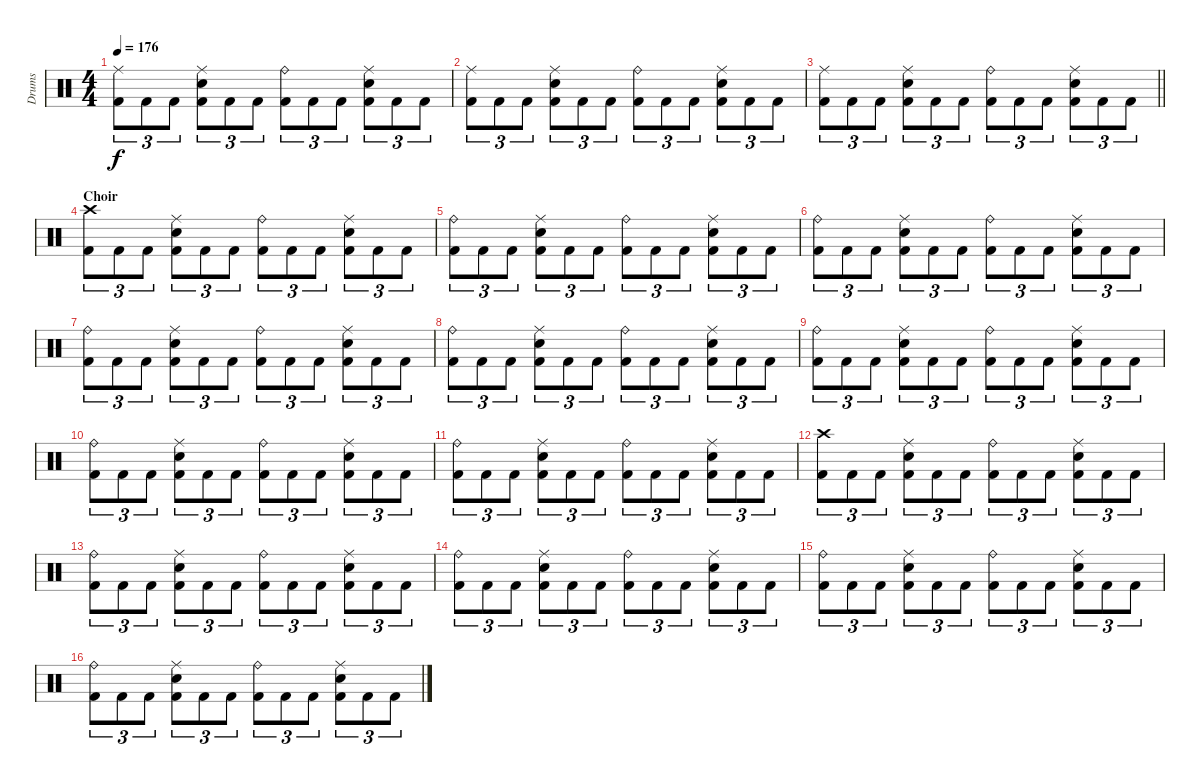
\track ("Drums" "Drums") {instrument percussion}
\staff {score}
\articulation defaults
\ts (4 4)
\tempo 176
\clef neutral
\ks c
("Ride (middle)" "Kick (hit) 2").8{tu (3 2) dy f} "Kick (hit) 2".8{tu (3 2)} "Kick (hit) 2".8{tu (3 2)} ("Ride (middle)" "Snare (hit) 2" "Kick (hit) 2").8{tu (3 2)} "Kick (hit) 2".8{tu (3 2)} "Kick (hit) 2".8{tu (3 2)} ("Ride (bell)" "Kick (hit) 2").8{tu (3 2)} "Kick (hit) 2".8{tu (3 2)} "Kick (hit) 2".8{tu (3 2)} ("Ride (middle)" "Snare (hit) 2" "Kick (hit) 2").8{tu (3 2)} "Kick (hit) 2".8{tu (3 2)} "Kick (hit) 2".8{tu (3 2)} |
("Ride (middle)" "Kick (hit) 2").8{tu (3 2)} "Kick (hit) 2".8{tu (3 2)} "Kick (hit) 2".8{tu (3 2)} ("Ride (middle)" "Snare (hit) 2" "Kick (hit) 2").8{tu (3 2)} "Kick (hit) 2".8{tu (3 2)} "Kick (hit) 2".8{tu (3 2)} ("Ride (bell)" "Kick (hit) 2").8{tu (3 2)} "Kick (hit) 2".8{tu (3 2)} "Kick (hit) 2".8{tu (3 2)} ("Ride (middle)" "Snare (hit) 2" "Kick (hit) 2").8{tu (3 2)} "Kick (hit) 2".8{tu (3 2)} "Kick (hit) 2".8{tu (3 2)} |
\barLineRight lightlight
("Ride (middle)" "Kick (hit) 2").8{tu (3 2)} "Kick (hit) 2".8{tu (3 2)} "Kick (hit) 2".8{tu (3 2)} ("Ride (middle)" "Snare (hit) 2" "Kick (hit) 2").8{tu (3 2)} "Kick (hit) 2".8{tu (3 2)} "Kick (hit) 2".8{tu (3 2)} ("Ride (bell)" "Kick (hit) 2").8{tu (3 2)} "Kick (hit) 2".8{tu (3 2)} "Kick (hit) 2".8{tu (3 2)} ("Ride (middle)" "Snare (hit) 2" "Kick (hit) 2").8{tu (3 2)} "Kick (hit) 2".8{tu (3 2)} "Kick (hit) 2".8{tu (3 2)} |
\section ("" "Choir")
("Crash high (hit)" "Kick (hit) 2").8{tu (3 2)} "Kick (hit) 2".8{tu (3 2)} "Kick (hit) 2".8{tu (3 2)} ("Ride (middle)" "Snare (hit) 2" "Kick (hit) 2").8{tu (3 2)} "Kick (hit) 2".8{tu (3 2)} "Kick (hit) 2".8{tu (3 2)} ("Ride (bell)" "Kick (hit) 2").8{tu (3 2)} "Kick (hit) 2".8{tu (3 2)} "Kick (hit) 2".8{tu (3 2)} ("Ride (middle)" "Snare (hit) 2" "Kick (hit) 2").8{tu (3 2)} "Kick (hit) 2".8{tu (3 2)} "Kick (hit) 2".8{tu (3 2)} |
("Ride (bell)" "Kick (hit) 2").8{tu (3 2)} "Kick (hit) 2".8{tu (3 2)} "Kick (hit) 2".8{tu (3 2)} ("Ride (middle)" "Snare (hit) 2" "Kick (hit) 2").8{tu (3 2)} "Kick (hit) 2".8{tu (3 2)} "Kick (hit) 2".8{tu (3 2)} ("Ride (bell)" "Kick (hit) 2").8{tu (3 2)} "Kick (hit) 2".8{tu (3 2)} "Kick (hit) 2".8{tu (3 2)} ("Ride (middle)" "Snare (hit) 2" "Kick (hit) 2").8{tu (3 2)} "Kick (hit) 2".8{tu (3 2)} "Kick (hit) 2".8{tu (3 2)} |
("Ride (bell)" "Kick (hit) 2").8{tu (3 2)} "Kick (hit) 2".8{tu (3 2)} "Kick (hit) 2".8{tu (3 2)} ("Ride (middle)" "Snare (hit) 2" "Kick (hit) 2").8{tu (3 2)} "Kick (hit) 2".8{tu (3 2)} "Kick (hit) 2".8{tu (3 2)} ("Ride (bell)" "Kick (hit) 2").8{tu (3 2)} "Kick (hit) 2".8{tu (3 2)} "Kick (hit) 2".8{tu (3 2)} ("Ride (middle)" "Snare (hit) 2" "Kick (hit) 2").8{tu (3 2)} "Kick (hit) 2".8{tu (3 2)} "Kick (hit) 2".8{tu (3 2)} |
("Ride (bell)" "Kick (hit) 2").8{tu (3 2)} "Kick (hit) 2".8{tu (3 2)} "Kick (hit) 2".8{tu (3 2)} ("Ride (middle)" "Snare (hit) 2" "Kick (hit) 2").8{tu (3 2)} "Kick (hit) 2".8{tu (3 2)} "Kick (hit) 2".8{tu (3 2)} ("Ride (bell)" "Kick (hit) 2").8{tu (3 2)} "Kick (hit) 2".8{tu (3 2)} "Kick (hit) 2".8{tu (3 2)} ("Ride (middle)" "Snare (hit) 2" "Kick (hit) 2").8{tu (3 2)} "Kick (hit) 2".8{tu (3 2)} "Kick (hit) 2".8{tu (3 2)} |
("Ride (bell)" "Kick (hit) 2").8{tu (3 2)} "Kick (hit) 2".8{tu (3 2)} "Kick (hit) 2".8{tu (3 2)} ("Ride (middle)" "Snare (hit) 2" "Kick (hit) 2").8{tu (3 2)} "Kick (hit) 2".8{tu (3 2)} "Kick (hit) 2".8{tu (3 2)} ("Ride (bell)" "Kick (hit) 2").8{tu (3 2)} "Kick (hit) 2".8{tu (3 2)} "Kick (hit) 2".8{tu (3 2)} ("Ride (middle)" "Snare (hit) 2" "Kick (hit) 2").8{tu (3 2)} "Kick (hit) 2".8{tu (3 2)} "Kick (hit) 2".8{tu (3 2)} |
("Ride (bell)" "Kick (hit) 2").8{tu (3 2)} "Kick (hit) 2".8{tu (3 2)} "Kick (hit) 2".8{tu (3 2)} ("Ride (middle)" "Snare (hit) 2" "Kick (hit) 2").8{tu (3 2)} "Kick (hit) 2".8{tu (3 2)} "Kick (hit) 2".8{tu (3 2)} ("Ride (bell)" "Kick (hit) 2").8{tu (3 2)} "Kick (hit) 2".8{tu (3 2)} "Kick (hit) 2".8{tu (3 2)} ("Ride (middle)" "Snare (hit) 2" "Kick (hit) 2").8{tu (3 2)} "Kick (hit) 2".8{tu (3 2)} "Kick (hit) 2".8{tu (3 2)} |
("Ride (bell)" "Kick (hit) 2").8{tu (3 2)} "Kick (hit) 2".8{tu (3 2)} "Kick (hit) 2".8{tu (3 2)} ("Ride (middle)" "Snare (hit) 2" "Kick (hit) 2").8{tu (3 2)} "Kick (hit) 2".8{tu (3 2)} "Kick (hit) 2".8{tu (3 2)} ("Ride (bell)" "Kick (hit) 2").8{tu (3 2)} "Kick (hit) 2".8{tu (3 2)} "Kick (hit) 2".8{tu (3 2)} ("Ride (middle)" "Snare (hit) 2" "Kick (hit) 2").8{tu (3 2)} "Kick (hit) 2".8{tu (3 2)} "Kick (hit) 2".8{tu (3 2)} |
("Ride (bell)" "Kick (hit) 2").8{tu (3 2)} "Kick (hit) 2".8{tu (3 2)} "Kick (hit) 2".8{tu (3 2)} ("Ride (middle)" "Snare (hit) 2" "Kick (hit) 2").8{tu (3 2)} "Kick (hit) 2".8{tu (3 2)} "Kick (hit) 2".8{tu (3 2)} ("Ride (bell)" "Kick (hit) 2").8{tu (3 2)} "Kick (hit) 2".8{tu (3 2)} "Kick (hit) 2".8{tu (3 2)} ("Ride (middle)" "Snare (hit) 2" "Kick (hit) 2").8{tu (3 2)} "Kick (hit) 2".8{tu (3 2)} "Kick (hit) 2".8{tu (3 2)} |
("Crash high (hit)" "Kick (hit) 2").8{tu (3 2)} "Kick (hit) 2".8{tu (3 2)} "Kick (hit) 2".8{tu (3 2)} ("Ride (middle)" "Snare (hit) 2" "Kick (hit) 2").8{tu (3 2)} "Kick (hit) 2".8{tu (3 2)} "Kick (hit) 2".8{tu (3 2)} ("Ride (bell)" "Kick (hit) 2").8{tu (3 2)} "Kick (hit) 2".8{tu (3 2)} "Kick (hit) 2".8{tu (3 2)} ("Ride (middle)" "Snare (hit) 2" "Kick (hit) 2").8{tu (3 2)} "Kick (hit) 2".8{tu (3 2)} "Kick (hit) 2".8{tu (3 2)} |
("Ride (bell)" "Kick (hit) 2").8{tu (3 2)} "Kick (hit) 2".8{tu (3 2)} "Kick (hit) 2".8{tu (3 2)} ("Ride (middle)" "Snare (hit) 2" "Kick (hit) 2").8{tu (3 2)} "Kick (hit) 2".8{tu (3 2)} "Kick (hit) 2".8{tu (3 2)} ("Ride (bell)" "Kick (hit) 2").8{tu (3 2)} "Kick (hit) 2".8{tu (3 2)} "Kick (hit) 2".8{tu (3 2)} ("Ride (middle)" "Snare (hit) 2" "Kick (hit) 2").8{tu (3 2)} "Kick (hit) 2".8{tu (3 2)} "Kick (hit) 2".8{tu (3 2)} |
("Ride (bell)" "Kick (hit) 2").8{tu (3 2)} "Kick (hit) 2".8{tu (3 2)} "Kick (hit) 2".8{tu (3 2)} ("Ride (middle)" "Snare (hit) 2" "Kick (hit) 2").8{tu (3 2)} "Kick (hit) 2".8{tu (3 2)} "Kick (hit) 2".8{tu (3 2)} ("Ride (bell)" "Kick (hit) 2").8{tu (3 2)} "Kick (hit) 2".8{tu (3 2)} "Kick (hit) 2".8{tu (3 2)} ("Ride (middle)" "Snare (hit) 2" "Kick (hit) 2").8{tu (3 2)} "Kick (hit) 2".8{tu (3 2)} "Kick (hit) 2".8{tu (3 2)} |
("Ride (bell)" "Kick (hit) 2").8{tu (3 2)} "Kick (hit) 2".8{tu (3 2)} "Kick (hit) 2".8{tu (3 2)} ("Ride (middle)" "Snare (hit) 2" "Kick (hit) 2").8{tu (3 2)} "Kick (hit) 2".8{tu (3 2)} "Kick (hit) 2".8{tu (3 2)} ("Ride (bell)" "Kick (hit) 2").8{tu (3 2)} "Kick (hit) 2".8{tu (3 2)} "Kick (hit) 2".8{tu (3 2)} ("Ride (middle)" "Snare (hit) 2" "Kick (hit) 2").8{tu (3 2)} "Kick (hit) 2".8{tu (3 2)} "Kick (hit) 2".8{tu (3 2)} |
("Ride (bell)" "Kick (hit) 2").8{tu (3 2)} "Kick (hit) 2".8{tu (3 2)} "Kick (hit) 2".8{tu (3 2)} ("Ride (middle)" "Snare (hit) 2" "Kick (hit) 2").8{tu (3 2)} "Kick (hit) 2".8{tu (3 2)} "Kick (hit) 2".8{tu (3 2)} ("Ride (bell)" "Kick (hit) 2").8{tu (3 2)} "Kick (hit) 2".8{tu (3 2)} "Kick (hit) 2".8{tu (3 2)} ("Ride (middle)" "Snare (hit) 2" "Kick (hit) 2").8{tu (3 2)} "Kick (hit) 2".8{tu (3 2)} "Kick (hit) 2".8{tu (3 2)}
